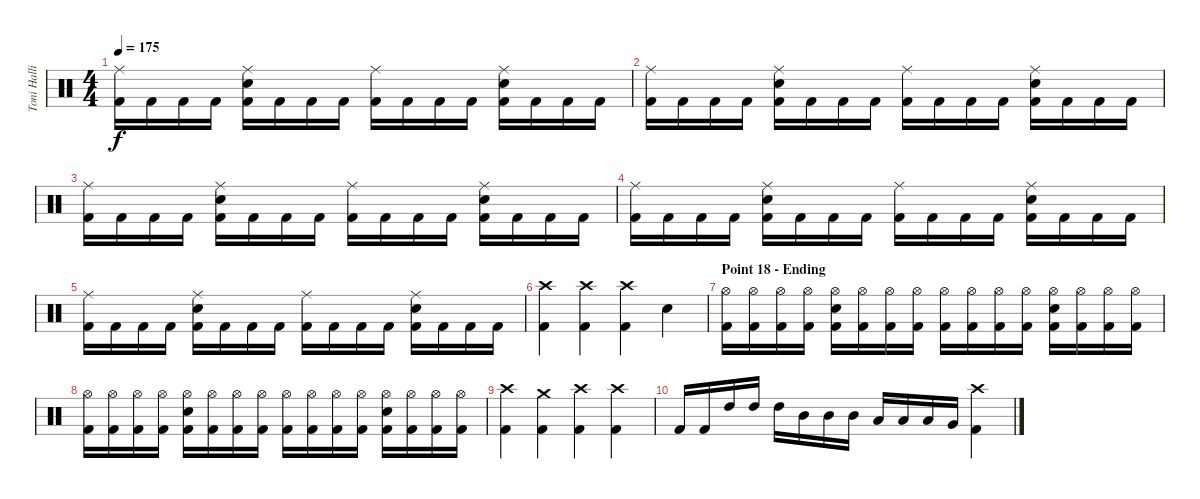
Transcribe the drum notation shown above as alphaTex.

\track ("Toni Hallio" "Toni Halli") {instrument percussion}
\staff {score}
\articulation defaults
\ts (4 4)
\tempo 175
\clef neutral
\ks c
("Ride (middle)" "Kick (hit) 2").16{dy f} "Kick (hit) 2".16 "Kick (hit) 2".16 "Kick (hit) 2".16 ("Ride (middle)" "Snare (hit) 2" "Kick (hit) 2").16 "Kick (hit) 2".16 "Kick (hit) 2".16 "Kick (hit) 2".16 ("Ride (middle)" "Kick (hit) 2").16 "Kick (hit) 2".16 "Kick (hit) 2".16 "Kick (hit) 2".16 ("Ride (middle)" "Snare (hit) 2" "Kick (hit) 2").16 "Kick (hit) 2".16 "Kick (hit) 2".16 "Kick (hit) 2".16 |
("Ride (middle)" "Kick (hit) 2").16 "Kick (hit) 2".16 "Kick (hit) 2".16 "Kick (hit) 2".16 ("Ride (middle)" "Snare (hit) 2" "Kick (hit) 2").16 "Kick (hit) 2".16 "Kick (hit) 2".16 "Kick (hit) 2".16 ("Ride (middle)" "Kick (hit) 2").16 "Kick (hit) 2".16 "Kick (hit) 2".16 "Kick (hit) 2".16 ("Ride (middle)" "Snare (hit) 2" "Kick (hit) 2").16 "Kick (hit) 2".16 "Kick (hit) 2".16 "Kick (hit) 2".16 |
("Ride (middle)" "Kick (hit) 2").16 "Kick (hit) 2".16 "Kick (hit) 2".16 "Kick (hit) 2".16 ("Ride (middle)" "Snare (hit) 2" "Kick (hit) 2").16 "Kick (hit) 2".16 "Kick (hit) 2".16 "Kick (hit) 2".16 ("Ride (middle)" "Kick (hit) 2").16 "Kick (hit) 2".16 "Kick (hit) 2".16 "Kick (hit) 2".16 ("Ride (middle)" "Snare (hit) 2" "Kick (hit) 2").16 "Kick (hit) 2".16 "Kick (hit) 2".16 "Kick (hit) 2".16 |
("Ride (middle)" "Kick (hit) 2").16 "Kick (hit) 2".16 "Kick (hit) 2".16 "Kick (hit) 2".16 ("Ride (middle)" "Snare (hit) 2" "Kick (hit) 2").16 "Kick (hit) 2".16 "Kick (hit) 2".16 "Kick (hit) 2".16 ("Ride (middle)" "Kick (hit) 2").16 "Kick (hit) 2".16 "Kick (hit) 2".16 "Kick (hit) 2".16 ("Ride (middle)" "Snare (hit) 2" "Kick (hit) 2").16 "Kick (hit) 2".16 "Kick (hit) 2".16 "Kick (hit) 2".16 |
("Ride (middle)" "Kick (hit) 2").16 "Kick (hit) 2".16 "Kick (hit) 2".16 "Kick (hit) 2".16 ("Ride (middle)" "Snare (hit) 2" "Kick (hit) 2").16 "Kick (hit) 2".16 "Kick (hit) 2".16 "Kick (hit) 2".16 ("Ride (middle)" "Kick (hit) 2").16 "Kick (hit) 2".16 "Kick (hit) 2".16 "Kick (hit) 2".16 ("Ride (middle)" "Snare (hit) 2" "Kick (hit) 2").16 "Kick (hit) 2".16 "Kick (hit) 2".16 "Kick (hit) 2".16 |
("Crash high (hit)" "Kick (hit) 2").4 ("Crash high (hit)" "Kick (hit) 2").4 ("Crash high (hit)" "Kick (hit) 2").4 "Snare (hit) 2".4 |
\section ("" "Point 18 - Ending")
("Hi-Hat (open)" "Kick (hit) 2").16 ("Hi-Hat (open)" "Kick (hit) 2").16 ("Hi-Hat (open)" "Kick (hit) 2").16 ("Hi-Hat (open)" "Kick (hit) 2").16 ("Hi-Hat (open)" "Snare (hit) 2" "Kick (hit) 2").16 ("Hi-Hat (open)" "Kick (hit) 2").16 ("Hi-Hat (open)" "Kick (hit) 2").16 ("Hi-Hat (open)" "Kick (hit) 2").16 ("Hi-Hat (open)" "Kick (hit) 2").16 ("Hi-Hat (open)" "Kick (hit) 2").16 ("Hi-Hat (open)" "Kick (hit) 2").16 ("Hi-Hat (open)" "Kick (hit) 2").16 ("Hi-Hat (open)" "Snare (hit) 2" "Kick (hit) 2").16 ("Hi-Hat (open)" "Kick (hit) 2").16 ("Hi-Hat (open)" "Kick (hit) 2").16 ("Hi-Hat (open)" "Kick (hit) 2").16 |
("Hi-Hat (open)" "Kick (hit) 2").16 ("Hi-Hat (open)" "Kick (hit) 2").16 ("Hi-Hat (open)" "Kick (hit) 2").16 ("Hi-Hat (open)" "Kick (hit) 2").16 ("Hi-Hat (open)" "Snare (hit) 2" "Kick (hit) 2").16 ("Hi-Hat (open)" "Kick (hit) 2").16 ("Hi-Hat (open)" "Kick (hit) 2").16 ("Hi-Hat (open)" "Kick (hit) 2").16 ("Hi-Hat (open)" "Kick (hit) 2").16 ("Hi-Hat (open)" "Kick (hit) 2").16 ("Hi-Hat (open)" "Kick (hit) 2").16 ("Hi-Hat (open)" "Kick (hit) 2").16 ("Hi-Hat (open)" "Snare (hit) 2" "Kick (hit) 2").16 ("Hi-Hat (open)" "Kick (hit) 2").16 ("Hi-Hat (open)" "Kick (hit) 2").16 ("Hi-Hat (open)" "Kick (hit) 2").16 |
("Crash high (hit)" "Kick (hit) 2").4 ("Crash medium (hit)" "Kick (hit) 2").4 ("Crash high (hit)" "Kick (hit) 2").4 ("Crash high (hit)" "Kick (hit) 2").4 |
"Kick (hit) 2".16 "Kick (hit) 2".16 "High Tom (hit)".16 "High Tom (hit)".16 "High Tom (hit)".16 "Mid Tom (hit)".16 "Mid Tom (hit)".16 "Mid Tom (hit)".16 "Low Tom (hit)".16 "Low Tom (hit)".16 "Low Tom (hit)".16 "Very Low Tom (hit)".16 ("Crash high (hit)" "Kick (hit) 2").4
